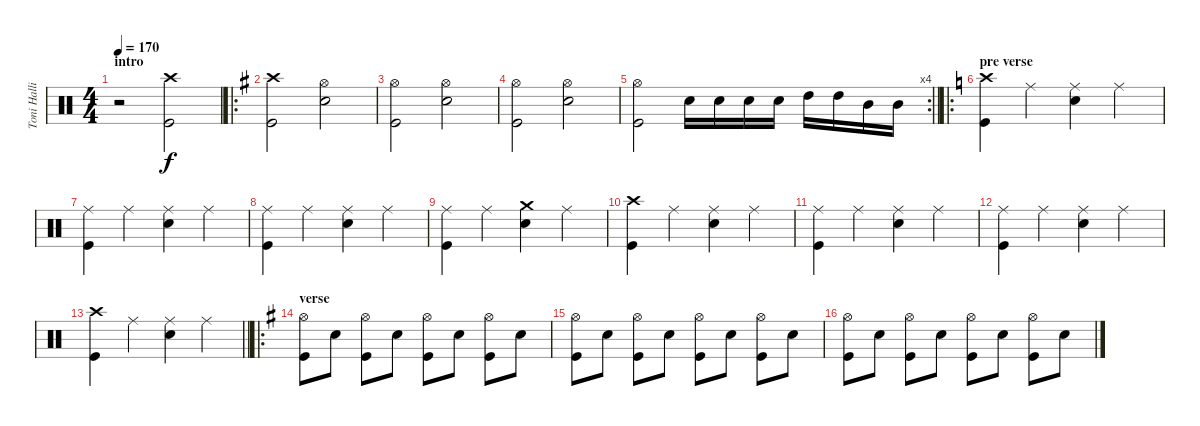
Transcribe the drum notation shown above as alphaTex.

\track ("Toni Hallio" "Toni Halli") {instrument percussion}
\staff {score}
\articulation defaults
\ts (4 4)
\section ("" "intro")
\tempo 170
\clef neutral
\ks c
r.2{dy f} ("Crash high (hit)" "Kick (hit)").2 |
\ro
\ks g
("Crash high (hit)" "Kick (hit)").2 ("Hi-Hat (open)" "Snare (hit) 2").2 |
("Hi-Hat (open)" "Kick (hit)").2 ("Hi-Hat (open)" "Snare (hit) 2").2 |
("Hi-Hat (open)" "Kick (hit)").2 ("Hi-Hat (open)" "Snare (hit) 2").2 |
\rc 4
\barLineRight lightlight
("Hi-Hat (open)" "Kick (hit)").2 "Snare (hit) 2".16 "Snare (hit) 2".16 "Snare (hit) 2".16 "Snare (hit) 2".16 "High Tom (hit)".16 "High Tom (hit)".16 "Mid Tom (hit)".16 "Mid Tom (hit)".16 |
\ro
\section ("" "pre verse")
\ks c
("Crash high (hit)" "Kick (hit)").4 "Ride (middle)".4 ("Ride (middle)" "Snare (hit) 2").4 "Ride (middle)".4 |
("Ride (middle)" "Kick (hit)").4 "Ride (middle)".4 ("Ride (middle)" "Snare (hit) 2").4 "Ride (middle)".4 |
("Ride (middle)" "Kick (hit)").4 "Ride (middle)".4 ("Ride (middle)" "Snare (hit) 2").4 "Ride (middle)".4 |
("Ride (middle)" "Kick (hit)").4 "Ride (middle)".4 ("Crash medium (hit)" "Snare (hit) 2").4 "Ride (middle)".4 |
("Crash high (hit)" "Kick (hit)").4 "Ride (middle)".4 ("Ride (middle)" "Snare (hit) 2").4 "Ride (middle)".4 |
("Ride (middle)" "Kick (hit)").4 "Ride (middle)".4 ("Ride (middle)" "Snare (hit) 2").4 "Ride (middle)".4 |
("Ride (middle)" "Kick (hit)").4 "Ride (middle)".4 ("Ride (middle)" "Snare (hit) 2").4 "Ride (middle)".4 |
\barLineRight lightlight
("Crash high (hit)" "Kick (hit)").4 "Ride (middle)".4 ("Ride (middle)" "Snare (hit) 2").4 "Ride (middle)".4 |
\ro
\section ("" "verse")
\ks g
("Hi-Hat (open)" "Kick (hit)").8 "Snare (hit) 2".8 ("Hi-Hat (open)" "Kick (hit)").8 "Snare (hit) 2".8 ("Hi-Hat (open)" "Kick (hit)").8 "Snare (hit) 2".8 ("Hi-Hat (open)" "Kick (hit)").8 "Snare (hit) 2".8 |
("Hi-Hat (open)" "Kick (hit)").8 "Snare (hit) 2".8 ("Hi-Hat (open)" "Kick (hit)").8 "Snare (hit) 2".8 ("Hi-Hat (open)" "Kick (hit)").8 "Snare (hit) 2".8 ("Hi-Hat (open)" "Kick (hit)").8 "Snare (hit) 2".8 |
("Hi-Hat (open)" "Kick (hit)").8 "Snare (hit) 2".8 ("Hi-Hat (open)" "Kick (hit)").8 "Snare (hit) 2".8 ("Hi-Hat (open)" "Kick (hit)").8 "Snare (hit) 2".8 ("Hi-Hat (open)" "Kick (hit)").8 "Snare (hit) 2".8
